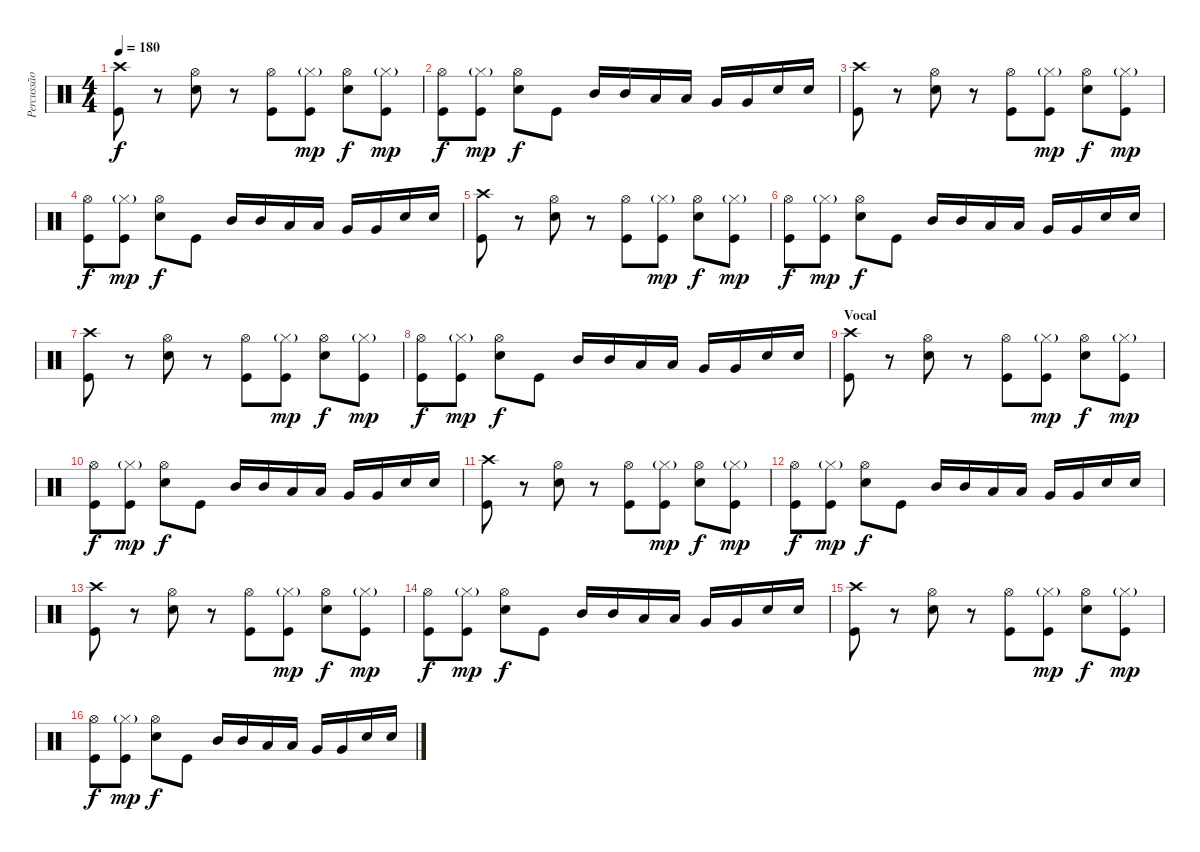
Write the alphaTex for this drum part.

\track ("Percussão" "Percussão") {mute instrument percussion}
\staff {score}
\articulation defaults
\ts (4 4)
\tempo 180
\clef neutral
\ks c
("Crash high (hit)" "Kick (hit)").8{dy f} r.8 ("Hi-Hat (open)" "Electric Snare (hit)").8 r.8 ("Hi-Hat (open)" "Kick (hit)").8 ("Hi-Hat (closed)"{g} "Kick (hit)").8{dy mp} ("Hi-Hat (open)" "Electric Snare (hit)").8{dy f} ("Hi-Hat (closed)"{g} "Kick (hit)").8{dy mp} |
("Hi-Hat (open)" "Kick (hit)").8{dy f} ("Hi-Hat (closed)"{g} "Kick (hit)").8{dy mp} ("Hi-Hat (open)" "Electric Snare (hit)").8{dy f} "Kick (hit)".8 "Mid Tom (hit)".16 "Mid Tom (hit)".16 "Low Tom (hit)".16 "Low Tom (hit)".16 "Very Low Tom (hit)".16 "Very Low Tom (hit)".16 "Electric Snare (hit)".16 "Electric Snare (hit)".16 |
("Crash high (hit)" "Kick (hit)").8 r.8 ("Hi-Hat (open)" "Electric Snare (hit)").8 r.8 ("Hi-Hat (open)" "Kick (hit)").8 ("Hi-Hat (closed)"{g} "Kick (hit)").8{dy mp} ("Hi-Hat (open)" "Electric Snare (hit)").8{dy f} ("Hi-Hat (closed)"{g} "Kick (hit)").8{dy mp} |
("Hi-Hat (open)" "Kick (hit)").8{dy f} ("Hi-Hat (closed)"{g} "Kick (hit)").8{dy mp} ("Hi-Hat (open)" "Electric Snare (hit)").8{dy f} "Kick (hit)".8 "Mid Tom (hit)".16 "Mid Tom (hit)".16 "Low Tom (hit)".16 "Low Tom (hit)".16 "Very Low Tom (hit)".16 "Very Low Tom (hit)".16 "Electric Snare (hit)".16 "Electric Snare (hit)".16 |
("Crash high (hit)" "Kick (hit)").8 r.8 ("Hi-Hat (open)" "Electric Snare (hit)").8 r.8 ("Hi-Hat (open)" "Kick (hit)").8 ("Hi-Hat (closed)"{g} "Kick (hit)").8{dy mp} ("Hi-Hat (open)" "Electric Snare (hit)").8{dy f} ("Hi-Hat (closed)"{g} "Kick (hit)").8{dy mp} |
("Hi-Hat (open)" "Kick (hit)").8{dy f} ("Hi-Hat (closed)"{g} "Kick (hit)").8{dy mp} ("Hi-Hat (open)" "Electric Snare (hit)").8{dy f} "Kick (hit)".8 "Mid Tom (hit)".16 "Mid Tom (hit)".16 "Low Tom (hit)".16 "Low Tom (hit)".16 "Very Low Tom (hit)".16 "Very Low Tom (hit)".16 "Electric Snare (hit)".16 "Electric Snare (hit)".16 |
("Crash high (hit)" "Kick (hit)").8 r.8 ("Hi-Hat (open)" "Electric Snare (hit)").8 r.8 ("Hi-Hat (open)" "Kick (hit)").8 ("Hi-Hat (closed)"{g} "Kick (hit)").8{dy mp} ("Hi-Hat (open)" "Electric Snare (hit)").8{dy f} ("Hi-Hat (closed)"{g} "Kick (hit)").8{dy mp} |
("Hi-Hat (open)" "Kick (hit)").8{dy f} ("Hi-Hat (closed)"{g} "Kick (hit)").8{dy mp} ("Hi-Hat (open)" "Electric Snare (hit)").8{dy f} "Kick (hit)".8 "Mid Tom (hit)".16 "Mid Tom (hit)".16 "Low Tom (hit)".16 "Low Tom (hit)".16 "Very Low Tom (hit)".16 "Very Low Tom (hit)".16 "Electric Snare (hit)".16 "Electric Snare (hit)".16 |
\section ("" "Vocal")
("Crash high (hit)" "Kick (hit)").8 r.8 ("Hi-Hat (open)" "Electric Snare (hit)").8 r.8 ("Hi-Hat (open)" "Kick (hit)").8 ("Hi-Hat (closed)"{g} "Kick (hit)").8{dy mp} ("Hi-Hat (open)" "Electric Snare (hit)").8{dy f} ("Hi-Hat (closed)"{g} "Kick (hit)").8{dy mp} |
("Hi-Hat (open)" "Kick (hit)").8{dy f} ("Hi-Hat (closed)"{g} "Kick (hit)").8{dy mp} ("Hi-Hat (open)" "Electric Snare (hit)").8{dy f} "Kick (hit)".8 "Mid Tom (hit)".16 "Mid Tom (hit)".16 "Low Tom (hit)".16 "Low Tom (hit)".16 "Very Low Tom (hit)".16 "Very Low Tom (hit)".16 "Electric Snare (hit)".16 "Electric Snare (hit)".16 |
("Crash high (hit)" "Kick (hit)").8 r.8 ("Hi-Hat (open)" "Electric Snare (hit)").8 r.8 ("Hi-Hat (open)" "Kick (hit)").8 ("Hi-Hat (closed)"{g} "Kick (hit)").8{dy mp} ("Hi-Hat (open)" "Electric Snare (hit)").8{dy f} ("Hi-Hat (closed)"{g} "Kick (hit)").8{dy mp} |
("Hi-Hat (open)" "Kick (hit)").8{dy f} ("Hi-Hat (closed)"{g} "Kick (hit)").8{dy mp} ("Hi-Hat (open)" "Electric Snare (hit)").8{dy f} "Kick (hit)".8 "Mid Tom (hit)".16 "Mid Tom (hit)".16 "Low Tom (hit)".16 "Low Tom (hit)".16 "Very Low Tom (hit)".16 "Very Low Tom (hit)".16 "Electric Snare (hit)".16 "Electric Snare (hit)".16 |
("Crash high (hit)" "Kick (hit)").8 r.8 ("Hi-Hat (open)" "Electric Snare (hit)").8 r.8 ("Hi-Hat (open)" "Kick (hit)").8 ("Hi-Hat (closed)"{g} "Kick (hit)").8{dy mp} ("Hi-Hat (open)" "Electric Snare (hit)").8{dy f} ("Hi-Hat (closed)"{g} "Kick (hit)").8{dy mp} |
("Hi-Hat (open)" "Kick (hit)").8{dy f} ("Hi-Hat (closed)"{g} "Kick (hit)").8{dy mp} ("Hi-Hat (open)" "Electric Snare (hit)").8{dy f} "Kick (hit)".8 "Mid Tom (hit)".16 "Mid Tom (hit)".16 "Low Tom (hit)".16 "Low Tom (hit)".16 "Very Low Tom (hit)".16 "Very Low Tom (hit)".16 "Electric Snare (hit)".16 "Electric Snare (hit)".16 |
("Crash high (hit)" "Kick (hit)").8 r.8 ("Hi-Hat (open)" "Electric Snare (hit)").8 r.8 ("Hi-Hat (open)" "Kick (hit)").8 ("Hi-Hat (closed)"{g} "Kick (hit)").8{dy mp} ("Hi-Hat (open)" "Electric Snare (hit)").8{dy f} ("Hi-Hat (closed)"{g} "Kick (hit)").8{dy mp} |
("Hi-Hat (open)" "Kick (hit)").8{dy f} ("Hi-Hat (closed)"{g} "Kick (hit)").8{dy mp} ("Hi-Hat (open)" "Electric Snare (hit)").8{dy f} "Kick (hit)".8 "Mid Tom (hit)".16 "Mid Tom (hit)".16 "Low Tom (hit)".16 "Low Tom (hit)".16 "Very Low Tom (hit)".16 "Very Low Tom (hit)".16 "Electric Snare (hit)".16 "Electric Snare (hit)".16
